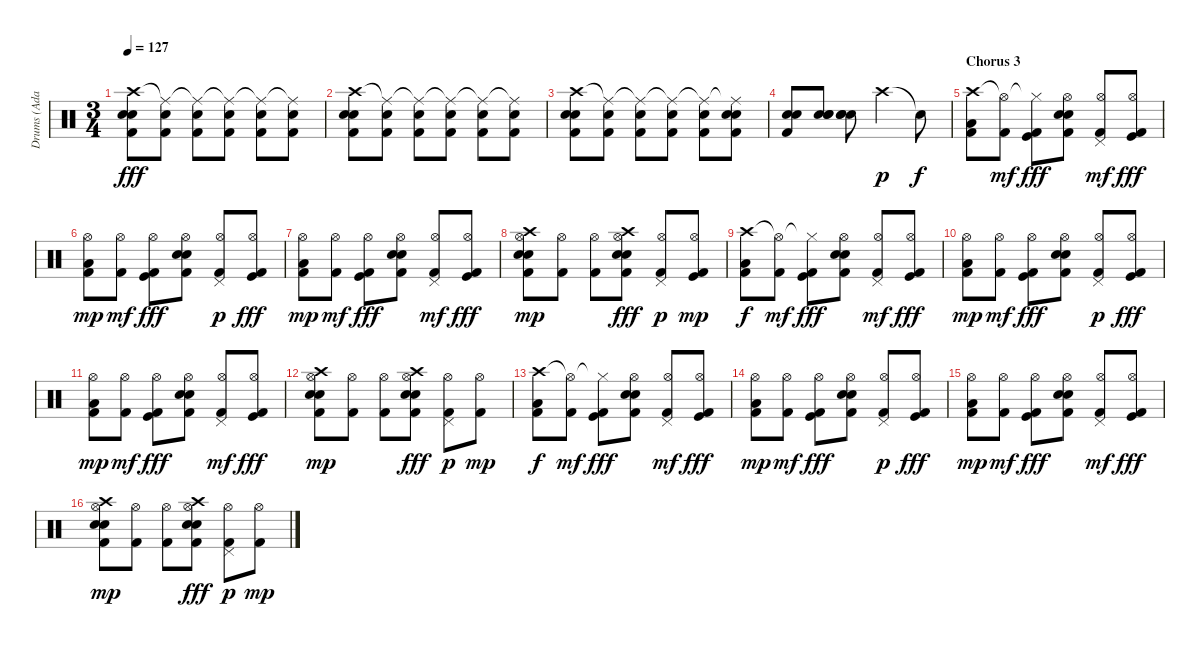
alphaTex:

\track ("Drums (Adam)" "Drums (Ada") {instrument percussion}
\staff {score}
\articulation defaults
\ts (3 4)
\tempo 127
\clef neutral
\ks c
("Crash high (hit)" "Snare (hit) 2" "Electric Snare (hit)" "Kick (hit) 2").8{dy fff} ("Ride (middle)"{t} "Electric Snare (hit)" "Kick (hit) 2").8 ("Ride (middle)"{t} "Electric Snare (hit)" "Kick (hit) 2").8 ("Ride (middle)"{t} "Electric Snare (hit)" "Kick (hit) 2").8 ("Ride (middle)"{t} "Electric Snare (hit)" "Kick (hit) 2").8 ("Ride (middle)"{t} "Electric Snare (hit)" "Kick (hit) 2").8 |
("Crash high (hit)" "Snare (hit) 2" "Electric Snare (hit)" "Kick (hit) 2").8 ("Ride (middle)"{t} "Electric Snare (hit)" "Kick (hit) 2").8 ("Ride (middle)"{t} "Electric Snare (hit)" "Kick (hit) 2").8 ("Ride (middle)"{t} "Electric Snare (hit)" "Kick (hit) 2").8 ("Ride (middle)"{t} "Electric Snare (hit)" "Kick (hit) 2").8 ("Ride (middle)"{t} "Electric Snare (hit)" "Kick (hit) 2").8 |
("Crash high (hit)" "Snare (hit) 2" "Electric Snare (hit)" "Kick (hit) 2").8 ("Ride (middle)"{t} "Electric Snare (hit)" "Kick (hit) 2").8 ("Ride (middle)"{t} "Electric Snare (hit)" "Kick (hit) 2").8 ("Ride (middle)"{t} "Electric Snare (hit)" "Kick (hit) 2").8 ("Ride (middle)"{t} "Electric Snare (hit)" "Kick (hit) 2").8 ("Ride (middle)"{t} "Snare (hit) 2" "Electric Snare (hit)" "Kick (hit) 2").8 |
("Snare (hit) 2" "Electric Snare (hit)" "Kick (hit) 2").8 ("Electric Snare (hit)" "Snare (hit) 2" "Electric Snare (hit)").8 ("Electric Snare (hit)" "Snare (hit) 2" "Electric Snare (hit)").8 "Crash high (hit)".4{dy p} "Snare (hit)"{t}.8{dy f} |
\section ("" "Chorus 3")
("Crash high (hit)" "Low Tom (hit)" "Kick (hit) 2").8 ("Hi-Hat (open)"{t} "Kick (hit) 2").8{dy mf} ("Hi-Hat (closed)"{t} "Kick (hit)" "Kick (hit) 2").8{dy fff} ("Hi-Hat (open)" "Electric Snare (hit)" "Electric Snare (hit)" "Kick (hit) 2").8 ("Hi-Hat (open)" "Pedal Hi-Hat (hit)" "Kick (hit) 2").8{dy mf} ("Hi-Hat (open)" "Kick (hit)" "Kick (hit) 2").8{dy fff} |
("Hi-Hat (open)" "Low Tom (hit)" "Kick (hit) 2").8{dy mp} ("Hi-Hat (open)" "Kick (hit) 2").8{dy mf} ("Hi-Hat (open)" "Kick (hit)" "Kick (hit) 2").8{dy fff} ("Hi-Hat (open)" "Electric Snare (hit)" "Electric Snare (hit)" "Kick (hit) 2").8 ("Hi-Hat (open)" "Pedal Hi-Hat (hit)" "Kick (hit) 2").8{dy p} ("Hi-Hat (open)" "Kick (hit)" "Kick (hit) 2").8{dy fff} |
("Hi-Hat (open)" "Low Tom (hit)" "Kick (hit) 2").8{dy mp} ("Hi-Hat (open)" "Kick (hit) 2").8{dy mf} ("Hi-Hat (open)" "Kick (hit)" "Kick (hit) 2").8{dy fff} ("Hi-Hat (open)" "Electric Snare (hit)" "Electric Snare (hit)" "Kick (hit) 2").8 ("Hi-Hat (open)" "Pedal Hi-Hat (hit)" "Kick (hit) 2").8{dy mf} ("Hi-Hat (open)" "Kick (hit)" "Kick (hit) 2").8{dy fff} |
("Crash high (hit)" "Hi-Hat (open)" "Electric Snare (hit)" "Electric Snare (hit)" "Kick (hit) 2").8{dy mp} ("Hi-Hat (open)" "Kick (hit) 2").8 ("Hi-Hat (open)" "Kick (hit) 2").8 ("Crash high (hit)" "Hi-Hat (open)" "Electric Snare (hit)" "Electric Snare (hit)" "Kick (hit) 2").8{dy fff} ("Hi-Hat (open)" "Pedal Hi-Hat (hit)" "Kick (hit) 2").8{dy p} ("Hi-Hat (open)" "Kick (hit)" "Kick (hit) 2").8{dy mp} |
("Crash high (hit)" "Low Tom (hit)" "Kick (hit) 2").8{dy f} ("Hi-Hat (open)"{t} "Kick (hit) 2").8{dy mf} ("Hi-Hat (closed)"{t} "Kick (hit)" "Kick (hit) 2").8{dy fff} ("Hi-Hat (open)" "Electric Snare (hit)" "Electric Snare (hit)" "Kick (hit) 2").8 ("Hi-Hat (open)" "Pedal Hi-Hat (hit)" "Kick (hit) 2").8{dy mf} ("Hi-Hat (open)" "Kick (hit)" "Kick (hit) 2").8{dy fff} |
("Hi-Hat (open)" "Low Tom (hit)" "Kick (hit) 2").8{dy mp} ("Hi-Hat (open)" "Kick (hit) 2").8{dy mf} ("Hi-Hat (open)" "Kick (hit)" "Kick (hit) 2").8{dy fff} ("Hi-Hat (open)" "Electric Snare (hit)" "Electric Snare (hit)" "Kick (hit) 2").8 ("Hi-Hat (open)" "Pedal Hi-Hat (hit)" "Kick (hit) 2").8{dy p} ("Hi-Hat (open)" "Kick (hit)" "Kick (hit) 2").8{dy fff} |
("Hi-Hat (open)" "Low Tom (hit)" "Kick (hit) 2").8{dy mp} ("Hi-Hat (open)" "Kick (hit) 2").8{dy mf} ("Hi-Hat (open)" "Kick (hit)" "Kick (hit) 2").8{dy fff} ("Hi-Hat (open)" "Electric Snare (hit)" "Electric Snare (hit)" "Kick (hit) 2").8 ("Hi-Hat (open)" "Pedal Hi-Hat (hit)" "Kick (hit) 2").8{dy mf} ("Hi-Hat (open)" "Kick (hit)" "Kick (hit) 2").8{dy fff} |
("Crash high (hit)" "Hi-Hat (open)" "Electric Snare (hit)" "Electric Snare (hit)" "Kick (hit) 2").8{dy mp} ("Hi-Hat (open)" "Kick (hit) 2").8 ("Hi-Hat (open)" "Kick (hit) 2").8 ("Crash high (hit)" "Hi-Hat (open)" "Electric Snare (hit)" "Electric Snare (hit)" "Kick (hit) 2").8{dy fff} ("Hi-Hat (open)" "Pedal Hi-Hat (hit)" "Kick (hit) 2").8{dy p} ("Hi-Hat (open)" "Kick (hit) 2").8{dy mp} |
("Crash high (hit)" "Low Tom (hit)" "Kick (hit) 2").8{dy f} ("Hi-Hat (open)"{t} "Kick (hit) 2").8{dy mf} ("Hi-Hat (closed)"{t} "Kick (hit)" "Kick (hit) 2").8{dy fff} ("Hi-Hat (open)" "Electric Snare (hit)" "Electric Snare (hit)" "Kick (hit) 2").8 ("Hi-Hat (open)" "Pedal Hi-Hat (hit)" "Kick (hit) 2").8{dy mf} ("Hi-Hat (open)" "Kick (hit)" "Kick (hit) 2").8{dy fff} |
("Hi-Hat (open)" "Low Tom (hit)" "Kick (hit) 2").8{dy mp} ("Hi-Hat (open)" "Kick (hit) 2").8{dy mf} ("Hi-Hat (open)" "Kick (hit)" "Kick (hit) 2").8{dy fff} ("Hi-Hat (open)" "Electric Snare (hit)" "Electric Snare (hit)" "Kick (hit) 2").8 ("Hi-Hat (open)" "Pedal Hi-Hat (hit)" "Kick (hit) 2").8{dy p} ("Hi-Hat (open)" "Kick (hit)" "Kick (hit) 2").8{dy fff} |
("Hi-Hat (open)" "Low Tom (hit)" "Kick (hit) 2").8{dy mp} ("Hi-Hat (open)" "Kick (hit) 2").8{dy mf} ("Hi-Hat (open)" "Kick (hit)" "Kick (hit) 2").8{dy fff} ("Hi-Hat (open)" "Electric Snare (hit)" "Electric Snare (hit)" "Kick (hit) 2").8 ("Hi-Hat (open)" "Pedal Hi-Hat (hit)" "Kick (hit) 2").8{dy mf} ("Hi-Hat (open)" "Kick (hit)" "Kick (hit) 2").8{dy fff} |
("Crash high (hit)" "Hi-Hat (open)" "Electric Snare (hit)" "Electric Snare (hit)" "Kick (hit) 2").8{dy mp} ("Hi-Hat (open)" "Kick (hit) 2").8 ("Hi-Hat (open)" "Kick (hit) 2").8 ("Crash high (hit)" "Hi-Hat (open)" "Electric Snare (hit)" "Electric Snare (hit)" "Kick (hit) 2").8{dy fff} ("Hi-Hat (open)" "Pedal Hi-Hat (hit)" "Kick (hit) 2").8{dy p} ("Hi-Hat (open)" "Kick (hit) 2").8{dy mp}
